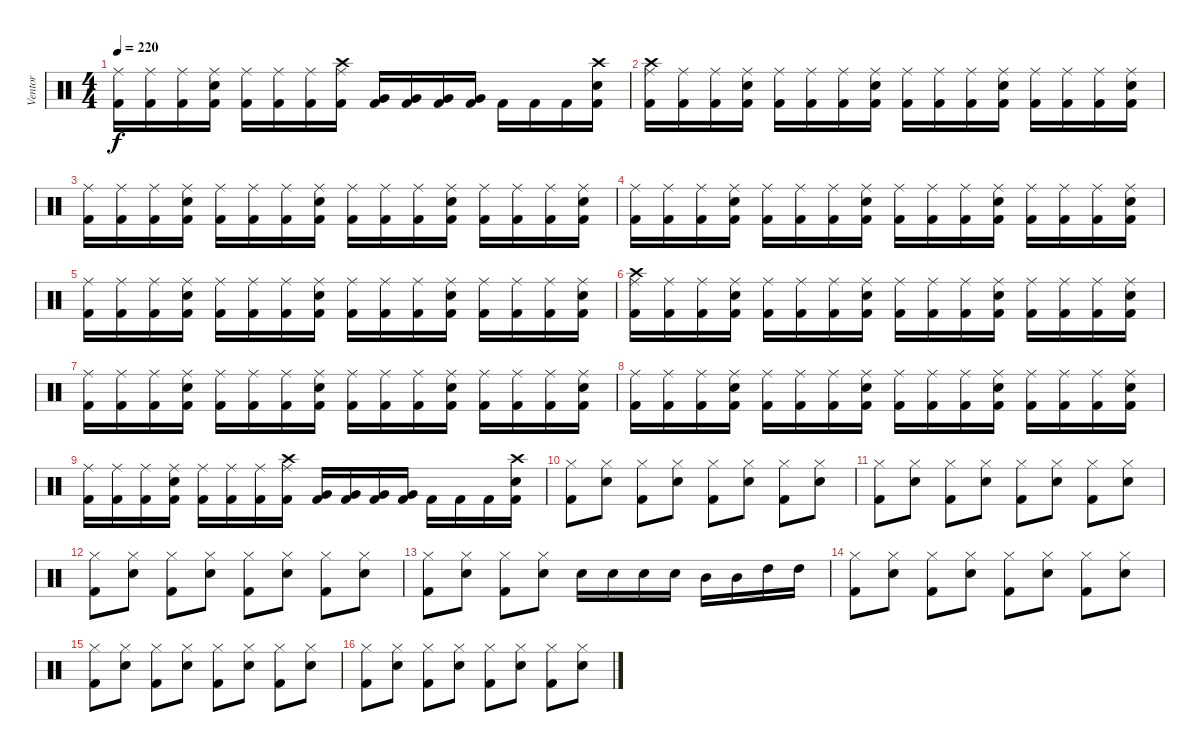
\track ("Ventor" "Ventor") {instrument percussion}
\staff {score}
\articulation defaults
\ts (4 4)
\tempo 220
\clef neutral
\ks c
("Kick (hit) 2" "Ride (middle)").16{dy f} ("Kick (hit) 2" "Ride (middle)").16 ("Kick (hit) 2" "Ride (middle)").16 ("Snare (hit) 2" "Kick (hit) 2" "Ride (middle)").16 ("Kick (hit) 2" "Ride (middle)").16 ("Kick (hit) 2" "Ride (middle)").16 ("Kick (hit) 2" "Ride (middle)").16 ("Crash high (hit)" "Kick (hit) 2" "Ride (middle)").16 ("Kick (hit) 2" "Very Low Tom (hit)").16 ("Kick (hit) 2" "Very Low Tom (hit)").16 ("Kick (hit) 2" "Very Low Tom (hit)").16 ("Kick (hit) 2" "Very Low Tom (hit)").16 "Kick (hit) 2".16 "Kick (hit) 2".16 "Kick (hit) 2".16 ("Crash high (hit)" "Snare (hit) 2" "Kick (hit) 2").16 |
("Crash high (hit)" "Kick (hit) 2" "Ride (middle)").16 ("Kick (hit) 2" "Ride (middle)").16 ("Kick (hit) 2" "Ride (middle)").16 ("Snare (hit) 2" "Kick (hit) 2" "Ride (middle)").16 ("Kick (hit) 2" "Ride (middle)").16 ("Kick (hit) 2" "Ride (middle)").16 ("Kick (hit) 2" "Ride (middle)").16 ("Snare (hit) 2" "Kick (hit) 2" "Ride (middle)").16 ("Kick (hit) 2" "Ride (middle)").16 ("Kick (hit) 2" "Ride (middle)").16 ("Kick (hit) 2" "Ride (middle)").16 ("Snare (hit) 2" "Kick (hit) 2" "Ride (middle)").16 ("Kick (hit) 2" "Ride (middle)").16 ("Kick (hit) 2" "Ride (middle)").16 ("Kick (hit) 2" "Ride (middle)").16 ("Snare (hit) 2" "Kick (hit) 2" "Ride (middle)").16 |
("Kick (hit) 2" "Ride (middle)").16 ("Kick (hit) 2" "Ride (middle)").16 ("Kick (hit) 2" "Ride (middle)").16 ("Snare (hit) 2" "Kick (hit) 2" "Ride (middle)").16 ("Kick (hit) 2" "Ride (middle)").16 ("Kick (hit) 2" "Ride (middle)").16 ("Kick (hit) 2" "Ride (middle)").16 ("Snare (hit) 2" "Kick (hit) 2" "Ride (middle)").16 ("Kick (hit) 2" "Ride (middle)").16 ("Kick (hit) 2" "Ride (middle)").16 ("Kick (hit) 2" "Ride (middle)").16 ("Snare (hit) 2" "Kick (hit) 2" "Ride (middle)").16 ("Kick (hit) 2" "Ride (middle)").16 ("Kick (hit) 2" "Ride (middle)").16 ("Kick (hit) 2" "Ride (middle)").16 ("Snare (hit) 2" "Kick (hit) 2" "Ride (middle)").16 |
("Kick (hit) 2" "Ride (middle)").16 ("Kick (hit) 2" "Ride (middle)").16 ("Kick (hit) 2" "Ride (middle)").16 ("Snare (hit) 2" "Kick (hit) 2" "Ride (middle)").16 ("Kick (hit) 2" "Ride (middle)").16 ("Kick (hit) 2" "Ride (middle)").16 ("Kick (hit) 2" "Ride (middle)").16 ("Snare (hit) 2" "Kick (hit) 2" "Ride (middle)").16 ("Kick (hit) 2" "Ride (middle)").16 ("Kick (hit) 2" "Ride (middle)").16 ("Kick (hit) 2" "Ride (middle)").16 ("Snare (hit) 2" "Kick (hit) 2" "Ride (middle)").16 ("Kick (hit) 2" "Ride (middle)").16 ("Kick (hit) 2" "Ride (middle)").16 ("Kick (hit) 2" "Ride (middle)").16 ("Snare (hit) 2" "Kick (hit) 2" "Ride (middle)").16 |
("Kick (hit) 2" "Ride (middle)").16 ("Kick (hit) 2" "Ride (middle)").16 ("Kick (hit) 2" "Ride (middle)").16 ("Snare (hit) 2" "Kick (hit) 2" "Ride (middle)").16 ("Kick (hit) 2" "Ride (middle)").16 ("Kick (hit) 2" "Ride (middle)").16 ("Kick (hit) 2" "Ride (middle)").16 ("Snare (hit) 2" "Kick (hit) 2" "Ride (middle)").16 ("Kick (hit) 2" "Ride (middle)").16 ("Kick (hit) 2" "Ride (middle)").16 ("Kick (hit) 2" "Ride (middle)").16 ("Snare (hit) 2" "Kick (hit) 2" "Ride (middle)").16 ("Kick (hit) 2" "Ride (middle)").16 ("Kick (hit) 2" "Ride (middle)").16 ("Kick (hit) 2" "Ride (middle)").16 ("Snare (hit) 2" "Kick (hit) 2" "Ride (middle)").16 |
("Crash high (hit)" "Kick (hit) 2" "Ride (middle)").16 ("Kick (hit) 2" "Ride (middle)").16 ("Kick (hit) 2" "Ride (middle)").16 ("Snare (hit) 2" "Kick (hit) 2" "Ride (middle)").16 ("Kick (hit) 2" "Ride (middle)").16 ("Kick (hit) 2" "Ride (middle)").16 ("Kick (hit) 2" "Ride (middle)").16 ("Snare (hit) 2" "Kick (hit) 2" "Ride (middle)").16 ("Kick (hit) 2" "Ride (middle)").16 ("Kick (hit) 2" "Ride (middle)").16 ("Kick (hit) 2" "Ride (middle)").16 ("Snare (hit) 2" "Kick (hit) 2" "Ride (middle)").16 ("Kick (hit) 2" "Ride (middle)").16 ("Kick (hit) 2" "Ride (middle)").16 ("Kick (hit) 2" "Ride (middle)").16 ("Snare (hit) 2" "Kick (hit) 2" "Ride (middle)").16 |
("Kick (hit) 2" "Ride (middle)").16 ("Kick (hit) 2" "Ride (middle)").16 ("Kick (hit) 2" "Ride (middle)").16 ("Snare (hit) 2" "Kick (hit) 2" "Ride (middle)").16 ("Kick (hit) 2" "Ride (middle)").16 ("Kick (hit) 2" "Ride (middle)").16 ("Kick (hit) 2" "Ride (middle)").16 ("Snare (hit) 2" "Kick (hit) 2" "Ride (middle)").16 ("Kick (hit) 2" "Ride (middle)").16 ("Kick (hit) 2" "Ride (middle)").16 ("Kick (hit) 2" "Ride (middle)").16 ("Snare (hit) 2" "Kick (hit) 2" "Ride (middle)").16 ("Kick (hit) 2" "Ride (middle)").16 ("Kick (hit) 2" "Ride (middle)").16 ("Kick (hit) 2" "Ride (middle)").16 ("Snare (hit) 2" "Kick (hit) 2" "Ride (middle)").16 |
("Kick (hit) 2" "Ride (middle)").16 ("Kick (hit) 2" "Ride (middle)").16 ("Kick (hit) 2" "Ride (middle)").16 ("Snare (hit) 2" "Kick (hit) 2" "Ride (middle)").16 ("Kick (hit) 2" "Ride (middle)").16 ("Kick (hit) 2" "Ride (middle)").16 ("Kick (hit) 2" "Ride (middle)").16 ("Snare (hit) 2" "Kick (hit) 2" "Ride (middle)").16 ("Kick (hit) 2" "Ride (middle)").16 ("Kick (hit) 2" "Ride (middle)").16 ("Kick (hit) 2" "Ride (middle)").16 ("Snare (hit) 2" "Kick (hit) 2" "Ride (middle)").16 ("Kick (hit) 2" "Ride (middle)").16 ("Kick (hit) 2" "Ride (middle)").16 ("Kick (hit) 2" "Ride (middle)").16 ("Snare (hit) 2" "Kick (hit) 2" "Ride (middle)").16 |
("Kick (hit) 2" "Ride (middle)").16 ("Kick (hit) 2" "Ride (middle)").16 ("Kick (hit) 2" "Ride (middle)").16 ("Snare (hit) 2" "Kick (hit) 2" "Ride (middle)").16 ("Kick (hit) 2" "Ride (middle)").16 ("Kick (hit) 2" "Ride (middle)").16 ("Kick (hit) 2" "Ride (middle)").16 ("Crash high (hit)" "Kick (hit) 2" "Ride (middle)").16 ("Kick (hit) 2" "Very Low Tom (hit)").16 ("Kick (hit) 2" "Very Low Tom (hit)").16 ("Kick (hit) 2" "Very Low Tom (hit)").16 ("Kick (hit) 2" "Very Low Tom (hit)").16 "Kick (hit) 2".16 "Kick (hit) 2".16 "Kick (hit) 2".16 ("Crash high (hit)" "Snare (hit) 2" "Kick (hit) 2").16 |
("Kick (hit) 2" "Hi-Hat (closed)").8 ("Snare (hit) 2" "Hi-Hat (closed)").8 ("Kick (hit) 2" "Hi-Hat (closed)").8 ("Snare (hit) 2" "Hi-Hat (closed)").8 ("Kick (hit) 2" "Hi-Hat (closed)").8 ("Snare (hit) 2" "Hi-Hat (closed)").8 ("Kick (hit) 2" "Hi-Hat (closed)").8 ("Snare (hit) 2" "Hi-Hat (closed)").8 |
("Kick (hit) 2" "Hi-Hat (closed)").8 ("Snare (hit) 2" "Hi-Hat (closed)").8 ("Kick (hit) 2" "Hi-Hat (closed)").8 ("Snare (hit) 2" "Hi-Hat (closed)").8 ("Kick (hit) 2" "Hi-Hat (closed)").8 ("Snare (hit) 2" "Hi-Hat (closed)").8 ("Kick (hit) 2" "Hi-Hat (closed)").8 ("Snare (hit) 2" "Hi-Hat (closed)").8 |
("Kick (hit) 2" "Hi-Hat (closed)").8 ("Snare (hit) 2" "Hi-Hat (closed)").8 ("Kick (hit) 2" "Hi-Hat (closed)").8 ("Snare (hit) 2" "Hi-Hat (closed)").8 ("Kick (hit) 2" "Hi-Hat (closed)").8 ("Snare (hit) 2" "Hi-Hat (closed)").8 ("Kick (hit) 2" "Hi-Hat (closed)").8 ("Snare (hit) 2" "Hi-Hat (closed)").8 |
("Kick (hit) 2" "Hi-Hat (closed)").8 ("Snare (hit) 2" "Hi-Hat (closed)").8 ("Kick (hit) 2" "Hi-Hat (closed)").8 ("Snare (hit) 2" "Hi-Hat (closed)").8 "Snare (hit) 2".16 "Snare (hit) 2".16 "Snare (hit) 2".16 "Snare (hit) 2".16 "Mid Tom (hit)".16 "Mid Tom (hit)".16 "High Tom (hit)".16 "High Tom (hit)".16 |
("Kick (hit) 2" "Hi-Hat (closed)").8 ("Snare (hit) 2" "Hi-Hat (closed)").8 ("Kick (hit) 2" "Hi-Hat (closed)").8 ("Snare (hit) 2" "Hi-Hat (closed)").8 ("Kick (hit) 2" "Hi-Hat (closed)").8 ("Snare (hit) 2" "Hi-Hat (closed)").8 ("Kick (hit) 2" "Hi-Hat (closed)").8 ("Snare (hit) 2" "Hi-Hat (closed)").8 |
("Kick (hit) 2" "Hi-Hat (closed)").8 ("Snare (hit) 2" "Hi-Hat (closed)").8 ("Kick (hit) 2" "Hi-Hat (closed)").8 ("Snare (hit) 2" "Hi-Hat (closed)").8 ("Kick (hit) 2" "Hi-Hat (closed)").8 ("Snare (hit) 2" "Hi-Hat (closed)").8 ("Kick (hit) 2" "Hi-Hat (closed)").8 ("Snare (hit) 2" "Hi-Hat (closed)").8 |
("Kick (hit) 2" "Hi-Hat (closed)").8 ("Snare (hit) 2" "Hi-Hat (closed)").8 ("Kick (hit) 2" "Hi-Hat (closed)").8 ("Snare (hit) 2" "Hi-Hat (closed)").8 ("Kick (hit) 2" "Hi-Hat (closed)").8 ("Snare (hit) 2" "Hi-Hat (closed)").8 ("Kick (hit) 2" "Hi-Hat (closed)").8 ("Snare (hit) 2" "Hi-Hat (closed)").8
